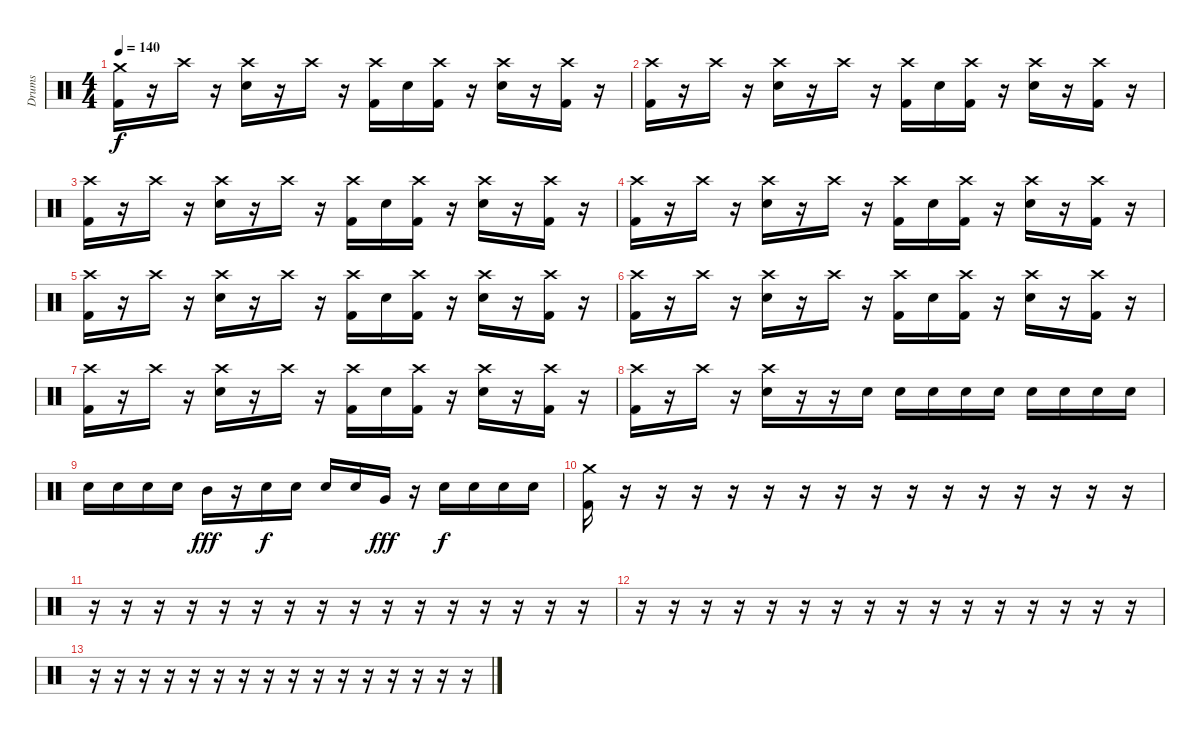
\track ("Drums" "Drums") {instrument percussion}
\staff {score}
\articulation defaults
\ts (4 4)
\tempo 140
\clef neutral
\ks c
("Crash medium (hit)" "Kick (hit) 2").16{dy f} r.16 "Crash high (hit)".16 r.16 ("Crash high (hit)" "Electric Snare (hit)").16 r.16 "Crash high (hit)".16 r.16 ("Crash high (hit)" "Kick (hit) 2").16 "Electric Snare (hit)".16 ("Crash high (hit)" "Kick (hit) 2").16 r.16 ("Crash high (hit)" "Electric Snare (hit)").16 r.16 ("Crash high (hit)" "Kick (hit) 2").16 r.16 |
("Crash high (hit)" "Kick (hit) 2").16 r.16 "Crash high (hit)".16 r.16 ("Crash high (hit)" "Electric Snare (hit)").16 r.16 "Crash high (hit)".16 r.16 ("Crash high (hit)" "Kick (hit) 2").16 "Electric Snare (hit)".16 ("Crash high (hit)" "Kick (hit) 2").16 r.16 ("Crash high (hit)" "Electric Snare (hit)").16 r.16 ("Crash high (hit)" "Kick (hit) 2").16 r.16 |
("Crash high (hit)" "Kick (hit) 2").16 r.16 "Crash high (hit)".16 r.16 ("Crash high (hit)" "Electric Snare (hit)").16 r.16 "Crash high (hit)".16 r.16 ("Crash high (hit)" "Kick (hit) 2").16 "Electric Snare (hit)".16 ("Crash high (hit)" "Kick (hit) 2").16 r.16 ("Crash high (hit)" "Electric Snare (hit)").16 r.16 ("Crash high (hit)" "Kick (hit) 2").16 r.16 |
("Crash high (hit)" "Kick (hit) 2").16 r.16 "Crash high (hit)".16 r.16 ("Crash high (hit)" "Electric Snare (hit)").16 r.16 "Crash high (hit)".16 r.16 ("Crash high (hit)" "Kick (hit) 2").16 "Electric Snare (hit)".16 ("Crash high (hit)" "Kick (hit) 2").16 r.16 ("Crash high (hit)" "Electric Snare (hit)").16 r.16 ("Crash high (hit)" "Kick (hit) 2").16 r.16 |
("Crash high (hit)" "Kick (hit) 2").16 r.16 "Crash high (hit)".16 r.16 ("Crash high (hit)" "Electric Snare (hit)").16 r.16 "Crash high (hit)".16 r.16 ("Crash high (hit)" "Kick (hit) 2").16 "Electric Snare (hit)".16 ("Crash high (hit)" "Kick (hit) 2").16 r.16 ("Crash high (hit)" "Electric Snare (hit)").16 r.16 ("Crash high (hit)" "Kick (hit) 2").16 r.16 |
("Crash high (hit)" "Kick (hit) 2").16 r.16 "Crash high (hit)".16 r.16 ("Crash high (hit)" "Electric Snare (hit)").16 r.16 "Crash high (hit)".16 r.16 ("Crash high (hit)" "Kick (hit) 2").16 "Electric Snare (hit)".16 ("Crash high (hit)" "Kick (hit) 2").16 r.16 ("Crash high (hit)" "Electric Snare (hit)").16 r.16 ("Crash high (hit)" "Kick (hit) 2").16 r.16 |
("Crash high (hit)" "Kick (hit) 2").16 r.16 "Crash high (hit)".16 r.16 ("Crash high (hit)" "Electric Snare (hit)").16 r.16 "Crash high (hit)".16 r.16 ("Crash high (hit)" "Kick (hit) 2").16 "Electric Snare (hit)".16 ("Crash high (hit)" "Kick (hit) 2").16 r.16 ("Crash high (hit)" "Electric Snare (hit)").16 r.16 ("Crash high (hit)" "Kick (hit) 2").16 r.16 |
("Crash high (hit)" "Kick (hit) 2").16 r.16 "Crash high (hit)".16 r.16 ("Crash high (hit)" "Electric Snare (hit)").16 r.16 r.16 "Electric Snare (hit)".16 "Electric Snare (hit)".16 "Electric Snare (hit)".16 "Electric Snare (hit)".16 "Electric Snare (hit)".16 "Electric Snare (hit)".16 "Electric Snare (hit)".16 "Electric Snare (hit)".16 "Electric Snare (hit)".16 |
"Electric Snare (hit)".16 "Electric Snare (hit)".16 "Electric Snare (hit)".16 "Electric Snare (hit)".16 "Mid Tom (hit)".16{dy fff} r.16 "Electric Snare (hit)".16{dy f} "Electric Snare (hit)".16 "Electric Snare (hit)".16 "Electric Snare (hit)".16 "Very Low Tom (hit)".16{dy fff} r.16 "Electric Snare (hit)".16{dy f} "Electric Snare (hit)".16 "Electric Snare (hit)".16 "Electric Snare (hit)".16 |
("Crash medium (hit)" "Kick (hit) 2").16 r.16 r.16 r.16 r.16 r.16 r.16 r.16 r.16 r.16 r.16 r.16 r.16 r.16 r.16 r.16 |
r.16 r.16 r.16 r.16 r.16 r.16 r.16 r.16 r.16 r.16 r.16 r.16 r.16 r.16 r.16 r.16 |
r.16 r.16 r.16 r.16 r.16 r.16 r.16 r.16 r.16 r.16 r.16 r.16 r.16 r.16 r.16 r.16 |
r.16 r.16 r.16 r.16 r.16 r.16 r.16 r.16 r.16 r.16 r.16 r.16 r.16 r.16 r.16 r.16
